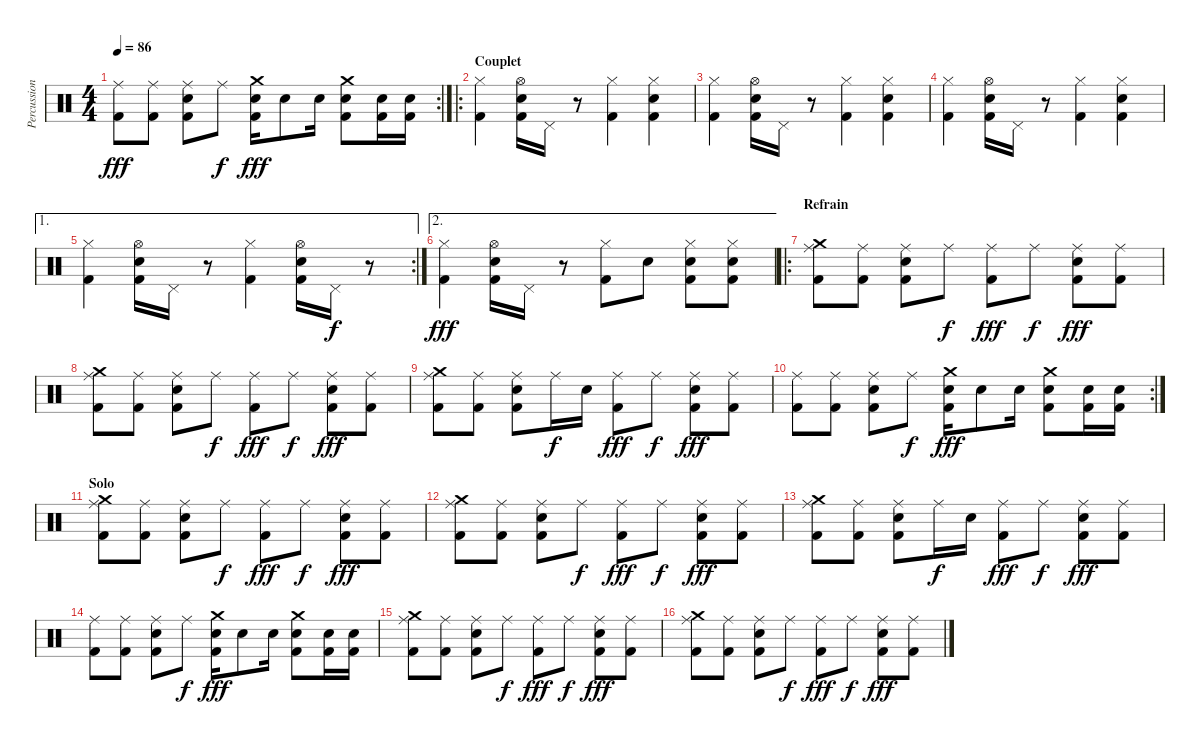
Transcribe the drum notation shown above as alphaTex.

\track ("Percussions" "Percussion") {instrument percussion}
\staff {score}
\articulation defaults
\rc 2
\ts (4 4)
\tempo 86
\clef neutral
\ks c
("Ride (middle)" "Kick (hit) 2").8{dy fff} ("Ride (middle)" "Kick (hit) 2").8 ("Ride (middle)" "Snare (hit) 2" "Kick (hit) 2").8 "Ride (middle)".8{dy f} ("Crash medium (hit)" "Snare (hit) 2" "Kick (hit) 2").16{dy fff} "Snare (hit) 2".8 "Snare (hit) 2".16 ("Crash medium (hit)" "Snare (hit) 2" "Kick (hit) 2").8 ("Snare (hit) 2" "Kick (hit) 2").16 ("Snare (hit) 2" "Kick (hit) 2").16 |
\ro
\section ("" "Couplet")
("Hi-Hat (closed)" "Kick (hit) 2").4 ("Hi-Hat (open)" "Snare (hit) 2" "Kick (hit) 2").16 "Pedal Hi-Hat (hit)".16 r.8 ("Hi-Hat (closed)" "Kick (hit) 2").4 ("Hi-Hat (closed)" "Snare (hit) 2" "Kick (hit) 2").4 |
("Hi-Hat (closed)" "Kick (hit) 2").4 ("Hi-Hat (open)" "Snare (hit) 2" "Kick (hit) 2").16 "Pedal Hi-Hat (hit)".16 r.8 ("Hi-Hat (closed)" "Kick (hit) 2").4 ("Hi-Hat (closed)" "Snare (hit) 2" "Kick (hit) 2").4 |
("Hi-Hat (closed)" "Kick (hit) 2").4 ("Hi-Hat (open)" "Snare (hit) 2" "Kick (hit) 2").16 "Pedal Hi-Hat (hit)".16 r.8 ("Hi-Hat (closed)" "Kick (hit) 2").4 ("Hi-Hat (closed)" "Snare (hit) 2" "Kick (hit) 2").4 |
\ae 1
\rc 2
("Hi-Hat (closed)" "Kick (hit) 2").4 ("Hi-Hat (open)" "Snare (hit) 2" "Kick (hit) 2").16 "Pedal Hi-Hat (hit)".16 r.8 ("Hi-Hat (closed)" "Kick (hit) 2").4 ("Hi-Hat (open)" "Snare (hit) 2" "Kick (hit) 2").16 "Pedal Hi-Hat (hit)".16{dy f} r.8 |
\ae 2
("Hi-Hat (closed)" "Kick (hit) 2").4{dy fff} ("Hi-Hat (open)" "Snare (hit) 2" "Kick (hit) 2").16 "Pedal Hi-Hat (hit)".16 r.8 ("Hi-Hat (closed)" "Kick (hit) 2").8 "Snare (hit) 2".8 ("Hi-Hat (closed)" "Snare (hit) 2" "Kick (hit) 2").8 ("Hi-Hat (closed)" "Snare (hit) 2" "Kick (hit) 2").8 |
\ro
\section ("" "Refrain")
("Ride (middle)" "Crash medium (hit)" "Kick (hit) 2").8 ("Ride (middle)" "Kick (hit) 2").8 ("Ride (middle)" "Snare (hit) 2" "Kick (hit) 2").8 "Ride (middle)".8{dy f} ("Ride (middle)" "Kick (hit) 2").8{dy fff} "Ride (middle)".8{dy f} ("Ride (middle)" "Snare (hit) 2" "Kick (hit) 2").8{dy fff} ("Ride (middle)" "Kick (hit) 2").8 |
("Ride (middle)" "Crash medium (hit)" "Kick (hit) 2").8 ("Ride (middle)" "Kick (hit) 2").8 ("Ride (middle)" "Snare (hit) 2" "Kick (hit) 2").8 "Ride (middle)".8{dy f} ("Ride (middle)" "Kick (hit) 2").8{dy fff} "Ride (middle)".8{dy f} ("Ride (middle)" "Snare (hit) 2" "Kick (hit) 2").8{dy fff} ("Ride (middle)" "Kick (hit) 2").8 |
("Ride (middle)" "Crash medium (hit)" "Kick (hit) 2").8 ("Ride (middle)" "Kick (hit) 2").8 ("Ride (middle)" "Snare (hit) 2" "Kick (hit) 2").8 "Ride (middle)".16{dy f} "Snare (hit) 2".16 ("Ride (middle)" "Kick (hit) 2").8{dy fff} "Ride (middle)".8{dy f} ("Ride (middle)" "Snare (hit) 2" "Kick (hit) 2").8{dy fff} ("Ride (middle)" "Kick (hit) 2").8 |
\rc 2
("Ride (middle)" "Kick (hit) 2").8 ("Ride (middle)" "Kick (hit) 2").8 ("Ride (middle)" "Snare (hit) 2" "Kick (hit) 2").8 "Ride (middle)".8{dy f} ("Crash medium (hit)" "Snare (hit) 2" "Kick (hit) 2").16{dy fff} "Snare (hit) 2".8 "Snare (hit) 2".16 ("Crash medium (hit)" "Snare (hit) 2" "Kick (hit) 2").8 ("Snare (hit) 2" "Kick (hit) 2").16 ("Snare (hit) 2" "Kick (hit) 2").16 |
\section ("" "Solo")
("Ride (middle)" "Crash medium (hit)" "Kick (hit) 2").8 ("Ride (middle)" "Kick (hit) 2").8 ("Ride (middle)" "Snare (hit) 2" "Kick (hit) 2").8 "Ride (middle)".8{dy f} ("Ride (middle)" "Kick (hit) 2").8{dy fff} "Ride (middle)".8{dy f} ("Ride (middle)" "Snare (hit) 2" "Kick (hit) 2").8{dy fff} ("Ride (middle)" "Kick (hit) 2").8 |
("Ride (middle)" "Crash medium (hit)" "Kick (hit) 2").8 ("Ride (middle)" "Kick (hit) 2").8 ("Ride (middle)" "Snare (hit) 2" "Kick (hit) 2").8 "Ride (middle)".8{dy f} ("Ride (middle)" "Kick (hit) 2").8{dy fff} "Ride (middle)".8{dy f} ("Ride (middle)" "Snare (hit) 2" "Kick (hit) 2").8{dy fff} ("Ride (middle)" "Kick (hit) 2").8 |
("Ride (middle)" "Crash medium (hit)" "Kick (hit) 2").8 ("Ride (middle)" "Kick (hit) 2").8 ("Ride (middle)" "Snare (hit) 2" "Kick (hit) 2").8 "Ride (middle)".16{dy f} "Snare (hit) 2".16 ("Ride (middle)" "Kick (hit) 2").8{dy fff} "Ride (middle)".8{dy f} ("Ride (middle)" "Snare (hit) 2" "Kick (hit) 2").8{dy fff} ("Ride (middle)" "Kick (hit) 2").8 |
("Ride (middle)" "Kick (hit) 2").8 ("Ride (middle)" "Kick (hit) 2").8 ("Ride (middle)" "Snare (hit) 2" "Kick (hit) 2").8 "Ride (middle)".8{dy f} ("Crash medium (hit)" "Snare (hit) 2" "Kick (hit) 2").16{dy fff} "Snare (hit) 2".8 "Snare (hit) 2".16 ("Crash medium (hit)" "Snare (hit) 2" "Kick (hit) 2").8 ("Snare (hit) 2" "Kick (hit) 2").16 ("Snare (hit) 2" "Kick (hit) 2").16 |
("Ride (middle)" "Crash medium (hit)" "Kick (hit) 2").8 ("Ride (middle)" "Kick (hit) 2").8 ("Ride (middle)" "Snare (hit) 2" "Kick (hit) 2").8 "Ride (middle)".8{dy f} ("Ride (middle)" "Kick (hit) 2").8{dy fff} "Ride (middle)".8{dy f} ("Ride (middle)" "Snare (hit) 2" "Kick (hit) 2").8{dy fff} ("Ride (middle)" "Kick (hit) 2").8 |
("Ride (middle)" "Crash medium (hit)" "Kick (hit) 2").8 ("Ride (middle)" "Kick (hit) 2").8 ("Ride (middle)" "Snare (hit) 2" "Kick (hit) 2").8 "Ride (middle)".8{dy f} ("Ride (middle)" "Kick (hit) 2").8{dy fff} "Ride (middle)".8{dy f} ("Ride (middle)" "Snare (hit) 2" "Kick (hit) 2").8{dy fff} ("Ride (middle)" "Kick (hit) 2").8
